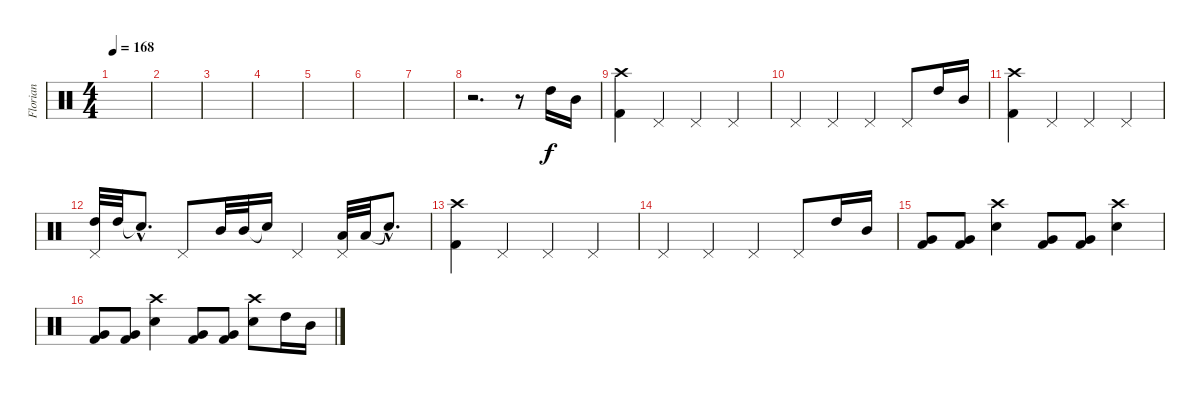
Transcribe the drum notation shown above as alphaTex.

\track ("Florian" "Florian") {instrument percussion}
\staff {score}
\articulation defaults
\ts (4 4)
\tempo 168
\clef neutral
\ks c
|
|
|
|
|
|
|
r.2{d} r.8 "High Tom (hit)".16 "Mid Tom (hit)".16 |
("Crash high (hit)" "Kick (hit) 2").4 "Pedal Hi-Hat (hit)".4 "Pedal Hi-Hat (hit)".4 "Pedal Hi-Hat (hit)".4 |
"Pedal Hi-Hat (hit)".4 "Pedal Hi-Hat (hit)".4 "Pedal Hi-Hat (hit)".4 "Pedal Hi-Hat (hit)".8 "High Tom (hit)".16 "Mid Tom (hit)".16 |
("Crash high (hit)" "Kick (hit) 2").4 "Pedal Hi-Hat (hit)".4 "Pedal Hi-Hat (hit)".4 "Pedal Hi-Hat (hit)".4 |
("Pedal Hi-Hat (hit)" "High Tom (hit)").32 "High Tom (hit)".32 "Snare (hit)"{hac t}.8{d} "Pedal Hi-Hat (hit)".8 "Mid Tom (hit)".32 "Mid Tom (hit)".32 "Snare (hit)"{t}.16 "Pedal Hi-Hat (hit)".4 ("Pedal Hi-Hat (hit)" "Low Tom (hit)").32 "Low Tom (hit)".32 "Snare (hit)"{hac t}.8{d} |
("Crash high (hit)" "Kick (hit) 2").4 "Pedal Hi-Hat (hit)".4 "Pedal Hi-Hat (hit)".4 "Pedal Hi-Hat (hit)".4 |
"Pedal Hi-Hat (hit)".4 "Pedal Hi-Hat (hit)".4 "Pedal Hi-Hat (hit)".4 "Pedal Hi-Hat (hit)".8 "High Tom (hit)".16 "Mid Tom (hit)".16 |
("Very Low Tom (hit)" "Kick (hit) 2").8 ("Very Low Tom (hit)" "Kick (hit) 2").8 ("Crash high (hit)" "Snare (hit) 2").4 ("Very Low Tom (hit)" "Kick (hit) 2").8 ("Very Low Tom (hit)" "Kick (hit) 2").8 ("Crash high (hit)" "Snare (hit) 2").4 |
("Very Low Tom (hit)" "Kick (hit) 2").8 ("Very Low Tom (hit)" "Kick (hit) 2").8 ("Crash high (hit)" "Snare (hit) 2").4 ("Very Low Tom (hit)" "Kick (hit) 2").8 ("Very Low Tom (hit)" "Kick (hit) 2").8 ("Crash high (hit)" "Snare (hit) 2").8 "High Tom (hit)".16 "Mid Tom (hit)".16
